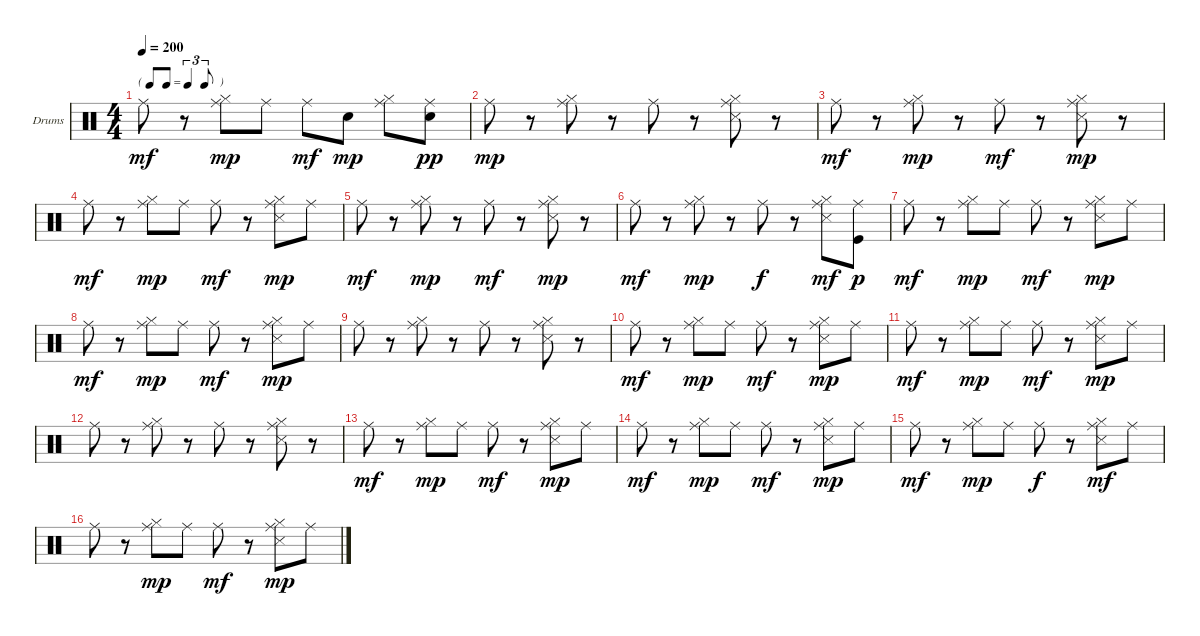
\bracketExtendMode groupsimilarinstruments
\firstSystemTrackNameOrientation horizontal
\otherSystemsTrackNameOrientation horizontal
\track ("Drumkit" "Drums") {instrument percussion}
\staff {score}
\articulation defaults
\ts (4 4)
\tf triplet8th
\tempo 200
\clef neutral
\ks c "Ride (middle)".8{dy mf}
r.8 ("Hi-Hat (closed)" "Ride (middle)").8{dy mp} "Ride (middle)".8 "Ride (middle)".8{dy mf} "Snare (hit) 2".8{dy mp} ("Hi-Hat (closed)" "Ride (middle)").8 ("Snare (hit) 2" "Ride (middle)").8{dy pp} |
"Ride (middle)".8{dy mp} r.8 ("Hi-Hat (closed)" "Ride (middle)").8 r.8 "Ride (middle)".8 r.8 ("Hi-Hat (closed)" "Snare (side stick) 3" "Ride (middle)").8 r.8 |
"Ride (middle)".8{dy mf} r.8 ("Hi-Hat (closed)" "Ride (middle)").8{dy mp} r.8 "Ride (middle)".8{dy mf} r.8 ("Hi-Hat (closed)" "Snare (side stick) 3" "Ride (middle)").8{dy mp} r.8 |
"Ride (middle)".8{dy mf} r.8 ("Hi-Hat (closed)" "Ride (middle)").8{dy mp} "Ride (middle)".8 "Ride (middle)".8{dy mf} r.8 ("Hi-Hat (closed)" "Snare (side stick) 3" "Ride (middle)").8{dy mp} "Ride (middle)".8 |
"Ride (middle)".8{dy mf} r.8 ("Hi-Hat (closed)" "Ride (middle)").8{dy mp} r.8 "Ride (middle)".8{dy mf} r.8 ("Hi-Hat (closed)" "Snare (side stick) 3" "Ride (middle)").8{dy mp} r.8 |
"Ride (middle)".8{dy mf} r.8 ("Hi-Hat (closed)" "Ride (middle)").8{dy mp} r.8 "Ride (middle)".8{dy f} r.8 ("Hi-Hat (closed)" "Snare (side stick) 3" "Ride (middle)").8{dy mf} ("Kick (hit)" "Ride (middle)").8{dy p} |
"Ride (middle)".8{dy mf} r.8 ("Hi-Hat (closed)" "Ride (middle)").8{dy mp} "Ride (middle)".8 "Ride (middle)".8{dy mf} r.8 ("Hi-Hat (closed)" "Snare (side stick) 3" "Ride (middle)").8{dy mp} "Ride (middle)".8 |
"Ride (middle)".8{dy mf} r.8 ("Hi-Hat (closed)" "Ride (middle)").8{dy mp} "Ride (middle)".8 "Ride (middle)".8{dy mf} r.8 ("Hi-Hat (closed)" "Snare (side stick) 3" "Ride (middle)").8{dy mp} "Ride (middle)".8 |
"Ride (middle)".8 r.8 ("Hi-Hat (closed)" "Ride (middle)").8 r.8 "Ride (middle)".8 r.8 ("Hi-Hat (closed)" "Snare (side stick) 3" "Ride (middle)").8 r.8 |
"Ride (middle)".8{dy mf} r.8 ("Hi-Hat (closed)" "Ride (middle)").8{dy mp} "Ride (middle)".8 "Ride (middle)".8{dy mf} r.8 ("Hi-Hat (closed)" "Snare (side stick) 3" "Ride (middle)").8{dy mp} "Ride (middle)".8 |
"Ride (middle)".8{dy mf} r.8 ("Hi-Hat (closed)" "Ride (middle)").8{dy mp} "Ride (middle)".8 "Ride (middle)".8{dy mf} r.8 ("Hi-Hat (closed)" "Snare (side stick) 3" "Ride (middle)").8{dy mp} "Ride (middle)".8 |
"Ride (middle)".8 r.8 ("Hi-Hat (closed)" "Ride (middle)").8 r.8 "Ride (middle)".8 r.8 ("Hi-Hat (closed)" "Snare (side stick) 3" "Ride (middle)").8 r.8 |
"Ride (middle)".8{dy mf} r.8 ("Hi-Hat (closed)" "Ride (middle)").8{dy mp} "Ride (middle)".8 "Ride (middle)".8{dy mf} r.8 ("Hi-Hat (closed)" "Snare (side stick) 3" "Ride (middle)").8{dy mp} "Ride (middle)".8 |
"Ride (middle)".8{dy mf} r.8 ("Hi-Hat (closed)" "Ride (middle)").8{dy mp} "Ride (middle)".8 "Ride (middle)".8{dy mf} r.8 ("Hi-Hat (closed)" "Snare (side stick) 3" "Ride (middle)").8{dy mp} "Ride (middle)".8 |
"Ride (middle)".8{dy mf} r.8 ("Hi-Hat (closed)" "Ride (middle)").8{dy mp} "Ride (middle)".8 "Ride (middle)".8{dy f} r.8 ("Hi-Hat (closed)" "Snare (side stick) 3" "Ride (middle)").8{dy mf} "Ride (middle)".8 |
"Ride (middle)".8 r.8 ("Hi-Hat (closed)" "Ride (middle)").8{dy mp} "Ride (middle)".8 "Ride (middle)".8{dy mf} r.8 ("Hi-Hat (closed)" "Snare (side stick) 3" "Ride (middle)").8{dy mp} "Ride (middle)".8
